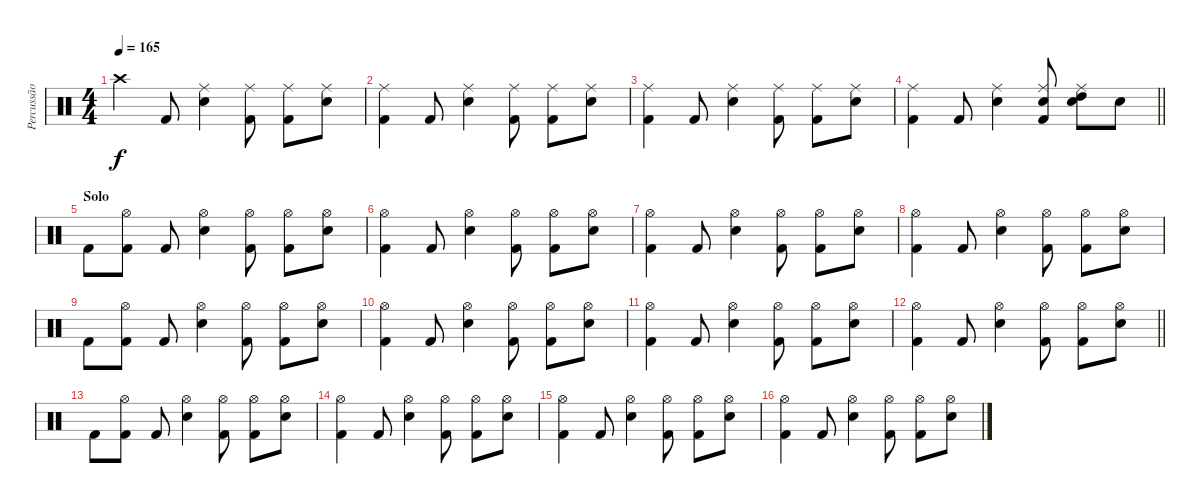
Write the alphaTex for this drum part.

\track ("Percussão" "Percussão") {instrument percussion}
\staff {score}
\articulation defaults
\ts (4 4)
\tempo 165
\clef neutral
\ks c "Crash high (hit)".4{dy f} "Kick (hit) 2".8
("Ride (middle)" "Snare (hit) 2").4 ("Ride (middle)" "Kick (hit) 2").8 ("Ride (middle)" "Kick (hit) 2").8 ("Ride (middle)" "Snare (hit) 2").8 |
("Ride (middle)" "Kick (hit) 2").4 "Kick (hit) 2".8 ("Ride (middle)" "Snare (hit) 2").4 ("Ride (middle)" "Kick (hit) 2").8 ("Ride (middle)" "Kick (hit) 2").8 ("Ride (middle)" "Snare (hit) 2").8 |
("Ride (middle)" "Kick (hit) 2").4 "Kick (hit) 2".8 ("Ride (middle)" "Snare (hit) 2").4 ("Ride (middle)" "Kick (hit) 2").8 ("Ride (middle)" "Kick (hit) 2").8 ("Ride (middle)" "Snare (hit) 2").8 |
\barLineRight lightlight
("Ride (middle)" "Kick (hit) 2").4 "Kick (hit) 2".8 ("Ride (middle)" "Snare (hit) 2").4 ("Ride (middle)" "Snare (hit) 2" "Kick (hit) 2").8 ("Ride (middle)" "Snare (hit) 2" "High Tom (hit)").8 "Snare (hit) 2".8 |
\section ("" "Solo")
"Kick (hit) 2".8 ("Hi-Hat (open)" "Kick (hit) 2").8 "Kick (hit) 2".8 ("Hi-Hat (open)" "Snare (hit) 2").4 ("Hi-Hat (open)" "Kick (hit) 2").8 ("Hi-Hat (open)" "Kick (hit) 2").8 ("Hi-Hat (open)" "Snare (hit) 2").8 |
("Hi-Hat (open)" "Kick (hit) 2").4 "Kick (hit) 2".8 ("Hi-Hat (open)" "Snare (hit) 2").4 ("Hi-Hat (open)" "Kick (hit) 2").8 ("Hi-Hat (open)" "Kick (hit) 2").8 ("Hi-Hat (open)" "Snare (hit) 2").8 |
("Hi-Hat (open)" "Kick (hit) 2").4 "Kick (hit) 2".8 ("Hi-Hat (open)" "Snare (hit) 2").4 ("Hi-Hat (open)" "Kick (hit) 2").8 ("Hi-Hat (open)" "Kick (hit) 2").8 ("Hi-Hat (open)" "Snare (hit) 2").8 |
("Hi-Hat (open)" "Kick (hit) 2").4 "Kick (hit) 2".8 ("Hi-Hat (open)" "Snare (hit) 2").4 ("Hi-Hat (open)" "Kick (hit) 2").8 ("Hi-Hat (open)" "Kick (hit) 2").8 ("Hi-Hat (open)" "Snare (hit) 2").8 |
"Kick (hit) 2".8 ("Hi-Hat (open)" "Kick (hit) 2").8 "Kick (hit) 2".8 ("Hi-Hat (open)" "Snare (hit) 2").4 ("Hi-Hat (open)" "Kick (hit) 2").8 ("Hi-Hat (open)" "Kick (hit) 2").8 ("Hi-Hat (open)" "Snare (hit) 2").8 |
("Hi-Hat (open)" "Kick (hit) 2").4 "Kick (hit) 2".8 ("Hi-Hat (open)" "Snare (hit) 2").4 ("Hi-Hat (open)" "Kick (hit) 2").8 ("Hi-Hat (open)" "Kick (hit) 2").8 ("Hi-Hat (open)" "Snare (hit) 2").8 |
("Hi-Hat (open)" "Kick (hit) 2").4 "Kick (hit) 2".8 ("Hi-Hat (open)" "Snare (hit) 2").4 ("Hi-Hat (open)" "Kick (hit) 2").8 ("Hi-Hat (open)" "Kick (hit) 2").8 ("Hi-Hat (open)" "Snare (hit) 2").8 |
\barLineRight lightlight
("Hi-Hat (open)" "Kick (hit) 2").4 "Kick (hit) 2".8 ("Hi-Hat (open)" "Snare (hit) 2").4 ("Hi-Hat (open)" "Kick (hit) 2").8 ("Hi-Hat (open)" "Kick (hit) 2").8 ("Hi-Hat (open)" "Snare (hit) 2").8 |
"Kick (hit) 2".8 ("Hi-Hat (open)" "Kick (hit) 2").8 "Kick (hit) 2".8 ("Hi-Hat (open)" "Snare (hit) 2").4 ("Hi-Hat (open)" "Kick (hit) 2").8 ("Hi-Hat (open)" "Kick (hit) 2").8 ("Hi-Hat (open)" "Snare (hit) 2").8 |
("Hi-Hat (open)" "Kick (hit) 2").4 "Kick (hit) 2".8 ("Hi-Hat (open)" "Snare (hit) 2").4 ("Hi-Hat (open)" "Kick (hit) 2").8 ("Hi-Hat (open)" "Kick (hit) 2").8 ("Hi-Hat (open)" "Snare (hit) 2").8 |
("Hi-Hat (open)" "Kick (hit) 2").4 "Kick (hit) 2".8 ("Hi-Hat (open)" "Snare (hit) 2").4 ("Hi-Hat (open)" "Kick (hit) 2").8 ("Hi-Hat (open)" "Kick (hit) 2").8 ("Hi-Hat (open)" "Snare (hit) 2").8 |
("Hi-Hat (open)" "Kick (hit) 2").4 "Kick (hit) 2".8 ("Hi-Hat (open)" "Snare (hit) 2").4 ("Hi-Hat (open)" "Kick (hit) 2").8 ("Hi-Hat (open)" "Kick (hit) 2").8 ("Hi-Hat (open)" "Snare (hit) 2").8
